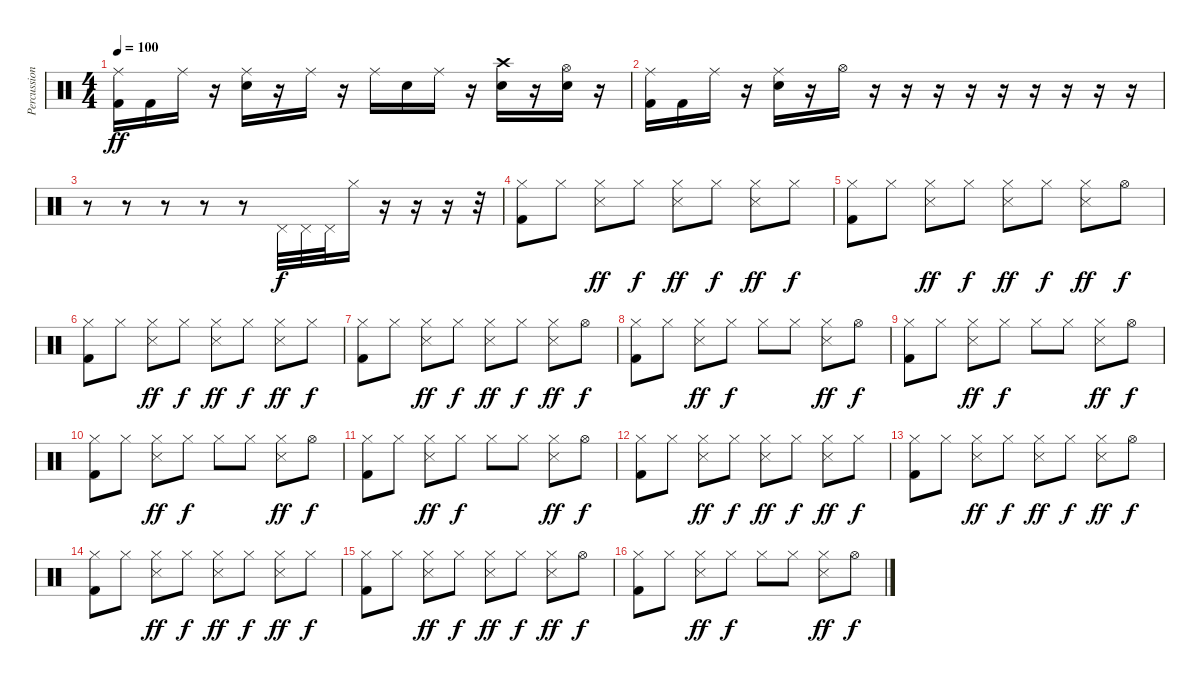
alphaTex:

\track ("Percussion" "Percussion") {instrument percussion}
\staff {score}
\articulation defaults
\ts (4 4)
\tempo 100
\clef neutral
\ks c
("Ride (middle)" "Kick (hit) 2").16{dy ff} "Kick (hit) 2".16 "Ride (middle)".16 r.16 ("Ride (middle)" "Electric Snare (hit)").16 r.16 "Ride (middle)".16 r.16 "Ride (middle)".16 "Electric Snare (hit)".16 "Ride (middle)".16 r.16 ("Crash high (hit)" "Electric Snare (hit)").16 r.16 ("Hi-Hat (open)" "Electric Snare (hit)").16 r.16 |
("Ride (middle)" "Kick (hit) 2").16 "Kick (hit) 2".16 "Ride (middle)".16 r.16 ("Ride (middle)" "Electric Snare (hit)").16 r.16 "Hi-Hat (open)".16 r.16 r.16 r.16 r.16 r.16 r.16 r.16 r.16 r.16 |
r.8 r.8 r.8 r.8 r.8 "Pedal Hi-Hat (hit)".32{dy f} "Pedal Hi-Hat (hit)".32 "Pedal Hi-Hat (hit)".32 "Hi-Hat (closed)".16 r.16 r.16 r.16 r.32 |
("Hi-Hat (closed)" "Kick (hit) 2").8 "Hi-Hat (closed)".8 ("Hi-Hat (closed)" "Snare (side stick) 3").8{dy ff} "Hi-Hat (closed)".8{dy f} ("Hi-Hat (closed)" "Snare (side stick) 3").8{dy ff} "Hi-Hat (closed)".8{dy f} ("Hi-Hat (closed)" "Snare (side stick) 3").8{dy ff} "Hi-Hat (closed)".8{dy f} |
("Hi-Hat (closed)" "Kick (hit) 2").8 "Hi-Hat (closed)".8 ("Hi-Hat (closed)" "Snare (side stick) 3").8{dy ff} "Hi-Hat (closed)".8{dy f} ("Hi-Hat (closed)" "Snare (side stick) 3").8{dy ff} "Hi-Hat (closed)".8{dy f} ("Hi-Hat (closed)" "Snare (side stick) 3").8{dy ff} "Hi-Hat (open)".8{dy f} |
("Hi-Hat (closed)" "Kick (hit) 2").8 "Hi-Hat (closed)".8 ("Hi-Hat (closed)" "Snare (side stick) 3").8{dy ff} "Hi-Hat (closed)".8{dy f} ("Hi-Hat (closed)" "Snare (side stick) 3").8{dy ff} "Hi-Hat (closed)".8{dy f} ("Hi-Hat (closed)" "Snare (side stick) 3").8{dy ff} "Hi-Hat (closed)".8{dy f} |
("Hi-Hat (closed)" "Kick (hit) 2").8 "Hi-Hat (closed)".8 ("Hi-Hat (closed)" "Snare (side stick) 3").8{dy ff} "Hi-Hat (closed)".8{dy f} ("Hi-Hat (closed)" "Snare (side stick) 3").8{dy ff} "Hi-Hat (closed)".8{dy f} ("Hi-Hat (closed)" "Snare (side stick) 3").8{dy ff} "Hi-Hat (open)".8{dy f} |
("Hi-Hat (closed)" "Kick (hit) 2").8 "Hi-Hat (closed)".8 ("Hi-Hat (closed)" "Snare (side stick) 3").8{dy ff} "Hi-Hat (closed)".8{dy f} "Hi-Hat (closed)".8 "Hi-Hat (closed)".8 ("Hi-Hat (closed)" "Snare (side stick) 3").8{dy ff} "Hi-Hat (open)".8{dy f} |
("Hi-Hat (closed)" "Kick (hit) 2").8 "Hi-Hat (closed)".8 ("Hi-Hat (closed)" "Snare (side stick) 3").8{dy ff} "Hi-Hat (closed)".8{dy f} "Hi-Hat (closed)".8 "Hi-Hat (closed)".8 ("Hi-Hat (closed)" "Snare (side stick) 3").8{dy ff} "Hi-Hat (open)".8{dy f} |
("Hi-Hat (closed)" "Kick (hit) 2").8 "Hi-Hat (closed)".8 ("Hi-Hat (closed)" "Snare (side stick) 3").8{dy ff} "Hi-Hat (closed)".8{dy f} "Hi-Hat (closed)".8 "Hi-Hat (closed)".8 ("Hi-Hat (closed)" "Snare (side stick) 3").8{dy ff} "Hi-Hat (open)".8{dy f} |
("Hi-Hat (closed)" "Kick (hit) 2").8 "Hi-Hat (closed)".8 ("Hi-Hat (closed)" "Snare (side stick) 3").8{dy ff} "Hi-Hat (closed)".8{dy f} "Hi-Hat (closed)".8 "Hi-Hat (closed)".8 ("Hi-Hat (closed)" "Snare (side stick) 3").8{dy ff} "Hi-Hat (open)".8{dy f} |
("Hi-Hat (closed)" "Kick (hit) 2").8 "Hi-Hat (closed)".8 ("Hi-Hat (closed)" "Snare (side stick) 3").8{dy ff} "Hi-Hat (closed)".8{dy f} ("Hi-Hat (closed)" "Snare (side stick) 3").8{dy ff} "Hi-Hat (closed)".8{dy f} ("Hi-Hat (closed)" "Snare (side stick) 3").8{dy ff} "Hi-Hat (closed)".8{dy f} |
("Hi-Hat (closed)" "Kick (hit) 2").8 "Hi-Hat (closed)".8 ("Hi-Hat (closed)" "Snare (side stick) 3").8{dy ff} "Hi-Hat (closed)".8{dy f} ("Hi-Hat (closed)" "Snare (side stick) 3").8{dy ff} "Hi-Hat (closed)".8{dy f} ("Hi-Hat (closed)" "Snare (side stick) 3").8{dy ff} "Hi-Hat (open)".8{dy f} |
("Hi-Hat (closed)" "Kick (hit) 2").8 "Hi-Hat (closed)".8 ("Hi-Hat (closed)" "Snare (side stick) 3").8{dy ff} "Hi-Hat (closed)".8{dy f} ("Hi-Hat (closed)" "Snare (side stick) 3").8{dy ff} "Hi-Hat (closed)".8{dy f} ("Hi-Hat (closed)" "Snare (side stick) 3").8{dy ff} "Hi-Hat (closed)".8{dy f} |
("Hi-Hat (closed)" "Kick (hit) 2").8 "Hi-Hat (closed)".8 ("Hi-Hat (closed)" "Snare (side stick) 3").8{dy ff} "Hi-Hat (closed)".8{dy f} ("Hi-Hat (closed)" "Snare (side stick) 3").8{dy ff} "Hi-Hat (closed)".8{dy f} ("Hi-Hat (closed)" "Snare (side stick) 3").8{dy ff} "Hi-Hat (open)".8{dy f} |
("Hi-Hat (closed)" "Kick (hit) 2").8 "Hi-Hat (closed)".8 ("Hi-Hat (closed)" "Snare (side stick) 3").8{dy ff} "Hi-Hat (closed)".8{dy f} "Hi-Hat (closed)".8 "Hi-Hat (closed)".8 ("Hi-Hat (closed)" "Snare (side stick) 3").8{dy ff} "Hi-Hat (open)".8{dy f}
